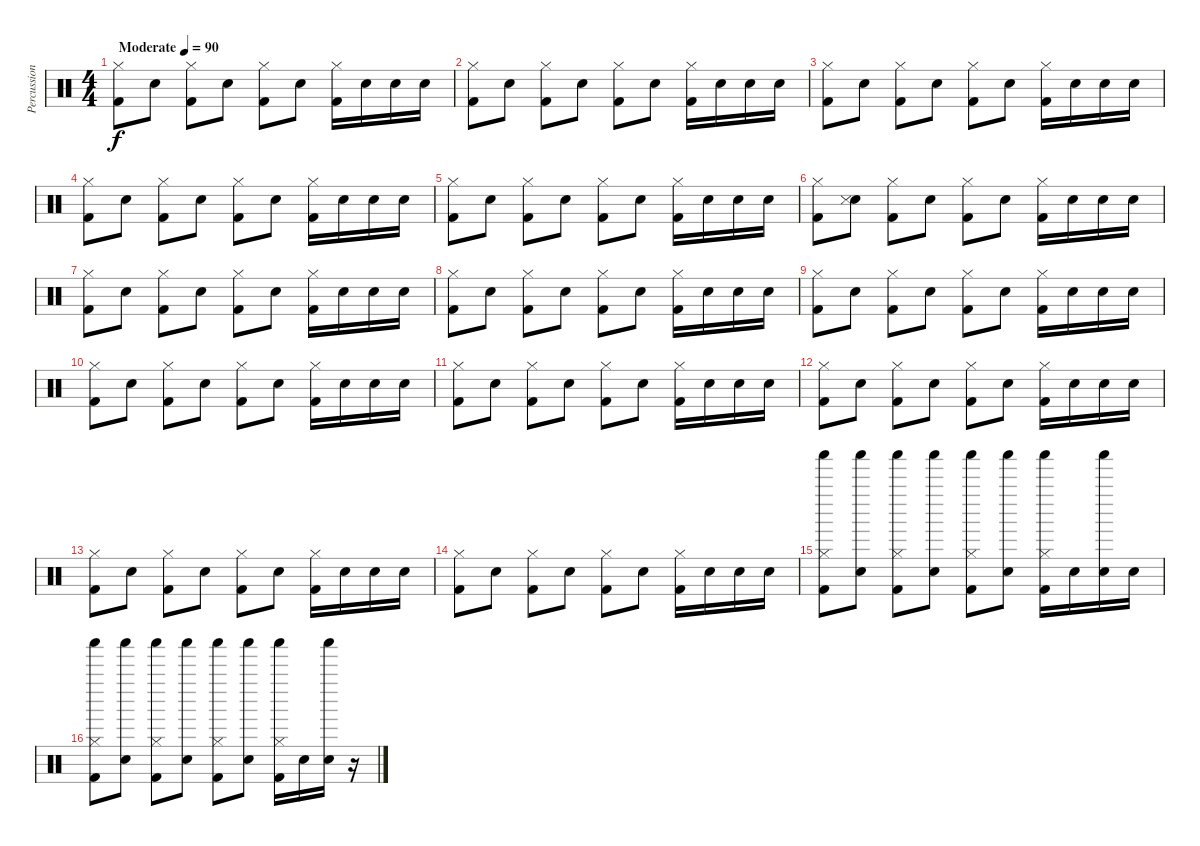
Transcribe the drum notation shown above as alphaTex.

\track ("Percussions" "Percussion") {instrument percussion}
\staff {score}
\articulation defaults
\ts (4 4)
\tempo (90 "Moderate")
\clef neutral
\ks c
("Hi-Hat (closed)" "Kick (hit) 2").8{dy f} "Snare (hit) 2".8 ("Hi-Hat (closed)" "Kick (hit) 2").8 "Snare (hit) 2".8 ("Hi-Hat (closed)" "Kick (hit) 2").8 "Snare (hit) 2".8 ("Hi-Hat (closed)" "Kick (hit) 2").16 "Snare (hit) 2".16 "Snare (hit) 2".16 "Snare (hit) 2".16 |
("Hi-Hat (closed)" "Kick (hit) 2").8 "Snare (hit) 2".8 ("Hi-Hat (closed)" "Kick (hit) 2").8 "Snare (hit) 2".8 ("Hi-Hat (closed)" "Kick (hit) 2").8 "Snare (hit) 2".8 ("Hi-Hat (closed)" "Kick (hit) 2").16 "Snare (hit) 2".16 "Snare (hit) 2".16 "Snare (hit) 2".16 |
("Hi-Hat (closed)" "Kick (hit) 2").8 "Snare (hit) 2".8 ("Hi-Hat (closed)" "Kick (hit) 2").8 "Snare (hit) 2".8 ("Hi-Hat (closed)" "Kick (hit) 2").8 "Snare (hit) 2".8 ("Hi-Hat (closed)" "Kick (hit) 2").16 "Snare (hit) 2".16 "Snare (hit) 2".16 "Snare (hit) 2".16 |
("Hi-Hat (closed)" "Kick (hit) 2").8 "Snare (hit) 2".8 ("Hi-Hat (closed)" "Kick (hit) 2").8 "Snare (hit) 2".8 ("Hi-Hat (closed)" "Kick (hit) 2").8 "Snare (hit) 2".8 ("Hi-Hat (closed)" "Kick (hit) 2").16 "Snare (hit) 2".16 "Snare (hit) 2".16 "Snare (hit) 2".16 |
("Hi-Hat (closed)" "Kick (hit) 2").8 "Snare (hit) 2".8 ("Hi-Hat (closed)" "Kick (hit) 2").8 "Snare (hit) 2".8 ("Hi-Hat (closed)" "Kick (hit) 2").8 "Snare (hit) 2".8 ("Hi-Hat (closed)" "Kick (hit) 2").16 "Snare (hit) 2".16 "Snare (hit) 2".16 "Snare (hit) 2".16 |
("Hi-Hat (closed)" "Kick (hit) 2").8 ("Snare (hit) 2" "Snare (side stick) 3").8 ("Hi-Hat (closed)" "Kick (hit) 2").8 "Snare (hit) 2".8 ("Hi-Hat (closed)" "Kick (hit) 2").8 "Snare (hit) 2".8 ("Hi-Hat (closed)" "Kick (hit) 2").16 "Snare (hit) 2".16 "Snare (hit) 2".16 "Snare (hit) 2".16 |
("Hi-Hat (closed)" "Kick (hit) 2").8 "Snare (hit) 2".8 ("Hi-Hat (closed)" "Kick (hit) 2").8 "Snare (hit) 2".8 ("Hi-Hat (closed)" "Kick (hit) 2").8 "Snare (hit) 2".8 ("Hi-Hat (closed)" "Kick (hit) 2").16 "Snare (hit) 2".16 "Snare (hit) 2".16 "Snare (hit) 2".16 |
("Hi-Hat (closed)" "Kick (hit) 2").8 "Snare (hit) 2".8 ("Hi-Hat (closed)" "Kick (hit) 2").8 "Snare (hit) 2".8 ("Hi-Hat (closed)" "Kick (hit) 2").8 "Snare (hit) 2".8 ("Hi-Hat (closed)" "Kick (hit) 2").16 "Snare (hit) 2".16 "Snare (hit) 2".16 "Snare (hit) 2".16 |
("Hi-Hat (closed)" "Kick (hit) 2").8 "Snare (hit) 2".8 ("Hi-Hat (closed)" "Kick (hit) 2").8 "Snare (hit) 2".8 ("Hi-Hat (closed)" "Kick (hit) 2").8 "Snare (hit) 2".8 ("Hi-Hat (closed)" "Kick (hit) 2").16 "Snare (hit) 2".16 "Snare (hit) 2".16 "Snare (hit) 2".16 |
("Hi-Hat (closed)" "Kick (hit) 2").8 "Snare (hit) 2".8 ("Hi-Hat (closed)" "Kick (hit) 2").8 "Snare (hit) 2".8 ("Hi-Hat (closed)" "Kick (hit) 2").8 "Snare (hit) 2".8 ("Hi-Hat (closed)" "Kick (hit) 2").16 "Snare (hit) 2".16 "Snare (hit) 2".16 "Snare (hit) 2".16 |
("Hi-Hat (closed)" "Kick (hit) 2").8 "Snare (hit) 2".8 ("Hi-Hat (closed)" "Kick (hit) 2").8 "Snare (hit) 2".8 ("Hi-Hat (closed)" "Kick (hit) 2").8 "Snare (hit) 2".8 ("Hi-Hat (closed)" "Kick (hit) 2").16 "Snare (hit) 2".16 "Snare (hit) 2".16 "Snare (hit) 2".16 |
("Hi-Hat (closed)" "Kick (hit) 2").8 "Snare (hit) 2".8 ("Hi-Hat (closed)" "Kick (hit) 2").8 "Snare (hit) 2".8 ("Hi-Hat (closed)" "Kick (hit) 2").8 "Snare (hit) 2".8 ("Hi-Hat (closed)" "Kick (hit) 2").16 "Snare (hit) 2".16 "Snare (hit) 2".16 "Snare (hit) 2".16 |
("Hi-Hat (closed)" "Kick (hit) 2").8 "Snare (hit) 2".8 ("Hi-Hat (closed)" "Kick (hit) 2").8 "Snare (hit) 2".8 ("Hi-Hat (closed)" "Kick (hit) 2").8 "Snare (hit) 2".8 ("Hi-Hat (closed)" "Kick (hit) 2").16 "Snare (hit) 2".16 "Snare (hit) 2".16 "Snare (hit) 2".16 |
("Hi-Hat (closed)" "Kick (hit) 2").8 "Snare (hit) 2".8 ("Hi-Hat (closed)" "Kick (hit) 2").8 "Snare (hit) 2".8 ("Hi-Hat (closed)" "Kick (hit) 2").8 "Snare (hit) 2".8 ("Hi-Hat (closed)" "Kick (hit) 2").16 "Snare (hit) 2".16 "Snare (hit) 2".16 "Snare (hit) 2".16 |
("Shaker (hit)" "Hi-Hat (closed)" "Kick (hit) 2").8 ("Shaker (hit)" "Snare (hit) 2").8 ("Shaker (hit)" "Hi-Hat (closed)" "Kick (hit) 2").8 ("Shaker (hit)" "Snare (hit) 2").8 ("Shaker (hit)" "Hi-Hat (closed)" "Kick (hit) 2").8 ("Shaker (hit)" "Snare (hit) 2").8 ("Shaker (hit)" "Hi-Hat (closed)" "Kick (hit) 2").16 "Snare (hit) 2".16 ("Shaker (hit)" "Snare (hit) 2").16 "Snare (hit) 2".16 |
("Shaker (hit)" "Hi-Hat (closed)" "Kick (hit) 2").8 ("Shaker (hit)" "Snare (hit) 2").8 ("Shaker (hit)" "Hi-Hat (closed)" "Kick (hit) 2").8 ("Shaker (hit)" "Snare (hit) 2").8 ("Shaker (hit)" "Hi-Hat (closed)" "Kick (hit) 2").8 ("Shaker (hit)" "Snare (hit) 2").8 ("Shaker (hit)" "Hi-Hat (closed)" "Kick (hit) 2").16 "Snare (hit) 2".16 ("Shaker (hit)" "Snare (hit) 2").16 r.16
